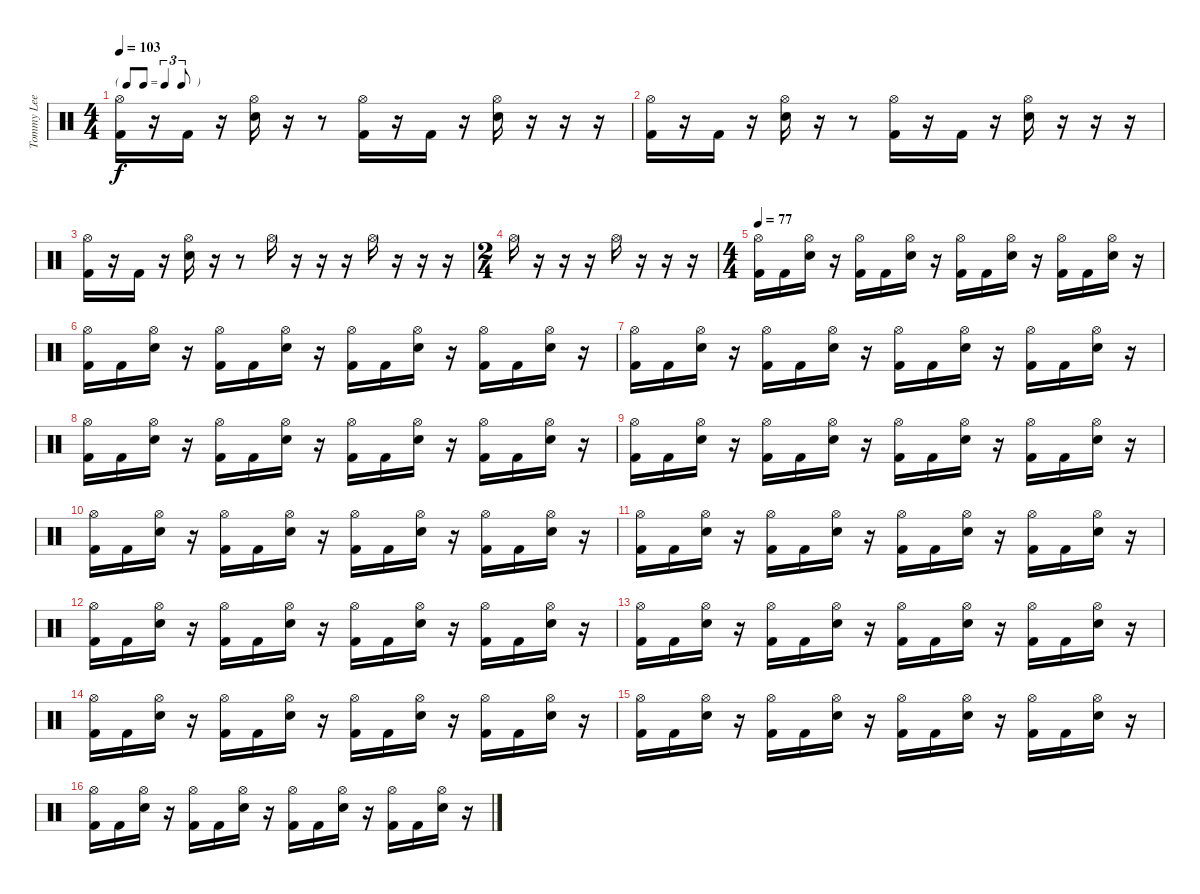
\track ("Tommy Lee" "Tommy Lee") {instrument percussion}
\staff {score}
\articulation defaults
\ts (4 4)
\tf triplet8th
\tempo 103
\clef neutral
\ks c
("Hi-Hat (open)" "Kick (hit) 2").16{dy f} r.16 "Kick (hit) 2".16 r.16 ("Hi-Hat (open)" "Snare (hit) 2").16 r.16 r.8 ("Hi-Hat (open)" "Kick (hit) 2").16 r.16 "Kick (hit) 2".16 r.16 ("Hi-Hat (open)" "Snare (hit) 2").16 r.16 r.16 r.16 |
("Hi-Hat (open)" "Kick (hit) 2").16 r.16 "Kick (hit) 2".16 r.16 ("Hi-Hat (open)" "Snare (hit) 2").16 r.16 r.8 ("Hi-Hat (open)" "Kick (hit) 2").16 r.16 "Kick (hit) 2".16 r.16 ("Hi-Hat (open)" "Snare (hit) 2").16 r.16 r.16 r.16 |
("Hi-Hat (open)" "Kick (hit) 2").16 r.16 "Kick (hit) 2".16 r.16 ("Hi-Hat (open)" "Snare (hit) 2").16 r.16 r.8 "Hi-Hat (open)".16 r.16 r.16 r.16 "Hi-Hat (open)".16 r.16 r.16 r.16 |
\ts (2 4)
"Hi-Hat (open)".16 r.16 r.16 r.16 "Hi-Hat (open)".16 r.16 r.16 r.16 |
\ts (4 4)
\tempo 74
\tempo 77
("Hi-Hat (open)" "Kick (hit) 2").16 "Kick (hit) 2".16 ("Hi-Hat (open)" "Electric Snare (hit)").16 r.16 ("Hi-Hat (open)" "Kick (hit) 2").16 "Kick (hit) 2".16 ("Hi-Hat (open)" "Electric Snare (hit)").16 r.16 ("Hi-Hat (open)" "Kick (hit) 2").16 "Kick (hit) 2".16 ("Hi-Hat (open)" "Electric Snare (hit)").16 r.16 ("Hi-Hat (open)" "Kick (hit) 2").16 "Kick (hit) 2".16 ("Hi-Hat (open)" "Electric Snare (hit)").16 r.16 |
("Hi-Hat (open)" "Kick (hit) 2").16 "Kick (hit) 2".16 ("Hi-Hat (open)" "Electric Snare (hit)").16 r.16 ("Hi-Hat (open)" "Kick (hit) 2").16 "Kick (hit) 2".16 ("Hi-Hat (open)" "Electric Snare (hit)").16 r.16 ("Hi-Hat (open)" "Kick (hit) 2").16 "Kick (hit) 2".16 ("Hi-Hat (open)" "Electric Snare (hit)").16 r.16 ("Hi-Hat (open)" "Kick (hit) 2").16 "Kick (hit) 2".16 ("Hi-Hat (open)" "Electric Snare (hit)").16 r.16 |
("Hi-Hat (open)" "Kick (hit) 2").16 "Kick (hit) 2".16 ("Hi-Hat (open)" "Electric Snare (hit)").16 r.16 ("Hi-Hat (open)" "Kick (hit) 2").16 "Kick (hit) 2".16 ("Hi-Hat (open)" "Electric Snare (hit)").16 r.16 ("Hi-Hat (open)" "Kick (hit) 2").16 "Kick (hit) 2".16 ("Hi-Hat (open)" "Electric Snare (hit)").16 r.16 ("Hi-Hat (open)" "Kick (hit) 2").16 "Kick (hit) 2".16 ("Hi-Hat (open)" "Electric Snare (hit)").16 r.16 |
("Hi-Hat (open)" "Kick (hit) 2").16 "Kick (hit) 2".16 ("Hi-Hat (open)" "Electric Snare (hit)").16 r.16 ("Hi-Hat (open)" "Kick (hit) 2").16 "Kick (hit) 2".16 ("Hi-Hat (open)" "Electric Snare (hit)").16 r.16 ("Hi-Hat (open)" "Kick (hit) 2").16 "Kick (hit) 2".16 ("Hi-Hat (open)" "Electric Snare (hit)").16 r.16 ("Hi-Hat (open)" "Kick (hit) 2").16 "Kick (hit) 2".16 ("Hi-Hat (open)" "Electric Snare (hit)").16 r.16 |
("Hi-Hat (open)" "Kick (hit) 2").16 "Kick (hit) 2".16 ("Hi-Hat (open)" "Electric Snare (hit)").16 r.16 ("Hi-Hat (open)" "Kick (hit) 2").16 "Kick (hit) 2".16 ("Hi-Hat (open)" "Electric Snare (hit)").16 r.16 ("Hi-Hat (open)" "Kick (hit) 2").16 "Kick (hit) 2".16 ("Hi-Hat (open)" "Electric Snare (hit)").16 r.16 ("Hi-Hat (open)" "Kick (hit) 2").16 "Kick (hit) 2".16 ("Hi-Hat (open)" "Electric Snare (hit)").16 r.16 |
("Hi-Hat (open)" "Kick (hit) 2").16 "Kick (hit) 2".16 ("Hi-Hat (open)" "Electric Snare (hit)").16 r.16 ("Hi-Hat (open)" "Kick (hit) 2").16 "Kick (hit) 2".16 ("Hi-Hat (open)" "Electric Snare (hit)").16 r.16 ("Hi-Hat (open)" "Kick (hit) 2").16 "Kick (hit) 2".16 ("Hi-Hat (open)" "Electric Snare (hit)").16 r.16 ("Hi-Hat (open)" "Kick (hit) 2").16 "Kick (hit) 2".16 ("Hi-Hat (open)" "Electric Snare (hit)").16 r.16 |
("Hi-Hat (open)" "Kick (hit) 2").16 "Kick (hit) 2".16 ("Hi-Hat (open)" "Electric Snare (hit)").16 r.16 ("Hi-Hat (open)" "Kick (hit) 2").16 "Kick (hit) 2".16 ("Hi-Hat (open)" "Electric Snare (hit)").16 r.16 ("Hi-Hat (open)" "Kick (hit) 2").16 "Kick (hit) 2".16 ("Hi-Hat (open)" "Electric Snare (hit)").16 r.16 ("Hi-Hat (open)" "Kick (hit) 2").16 "Kick (hit) 2".16 ("Hi-Hat (open)" "Electric Snare (hit)").16 r.16 |
("Hi-Hat (open)" "Kick (hit) 2").16 "Kick (hit) 2".16 ("Hi-Hat (open)" "Electric Snare (hit)").16 r.16 ("Hi-Hat (open)" "Kick (hit) 2").16 "Kick (hit) 2".16 ("Hi-Hat (open)" "Electric Snare (hit)").16 r.16 ("Hi-Hat (open)" "Kick (hit) 2").16 "Kick (hit) 2".16 ("Hi-Hat (open)" "Electric Snare (hit)").16 r.16 ("Hi-Hat (open)" "Kick (hit) 2").16 "Kick (hit) 2".16 ("Hi-Hat (open)" "Electric Snare (hit)").16 r.16 |
("Hi-Hat (open)" "Kick (hit) 2").16 "Kick (hit) 2".16 ("Hi-Hat (open)" "Electric Snare (hit)").16 r.16 ("Hi-Hat (open)" "Kick (hit) 2").16 "Kick (hit) 2".16 ("Hi-Hat (open)" "Electric Snare (hit)").16 r.16 ("Hi-Hat (open)" "Kick (hit) 2").16 "Kick (hit) 2".16 ("Hi-Hat (open)" "Electric Snare (hit)").16 r.16 ("Hi-Hat (open)" "Kick (hit) 2").16 "Kick (hit) 2".16 ("Hi-Hat (open)" "Electric Snare (hit)").16 r.16 |
("Hi-Hat (open)" "Kick (hit) 2").16 "Kick (hit) 2".16 ("Hi-Hat (open)" "Electric Snare (hit)").16 r.16 ("Hi-Hat (open)" "Kick (hit) 2").16 "Kick (hit) 2".16 ("Hi-Hat (open)" "Electric Snare (hit)").16 r.16 ("Hi-Hat (open)" "Kick (hit) 2").16 "Kick (hit) 2".16 ("Hi-Hat (open)" "Electric Snare (hit)").16 r.16 ("Hi-Hat (open)" "Kick (hit) 2").16 "Kick (hit) 2".16 ("Hi-Hat (open)" "Electric Snare (hit)").16 r.16 |
("Hi-Hat (open)" "Kick (hit) 2").16 "Kick (hit) 2".16 ("Hi-Hat (open)" "Electric Snare (hit)").16 r.16 ("Hi-Hat (open)" "Kick (hit) 2").16 "Kick (hit) 2".16 ("Hi-Hat (open)" "Electric Snare (hit)").16 r.16 ("Hi-Hat (open)" "Kick (hit) 2").16 "Kick (hit) 2".16 ("Hi-Hat (open)" "Electric Snare (hit)").16 r.16 ("Hi-Hat (open)" "Kick (hit) 2").16 "Kick (hit) 2".16 ("Hi-Hat (open)" "Electric Snare (hit)").16 r.16 |
("Hi-Hat (open)" "Kick (hit) 2").16 "Kick (hit) 2".16 ("Hi-Hat (open)" "Electric Snare (hit)").16 r.16 ("Hi-Hat (open)" "Kick (hit) 2").16 "Kick (hit) 2".16 ("Hi-Hat (open)" "Electric Snare (hit)").16 r.16 ("Hi-Hat (open)" "Kick (hit) 2").16 "Kick (hit) 2".16 ("Hi-Hat (open)" "Electric Snare (hit)").16 r.16 ("Hi-Hat (open)" "Kick (hit) 2").16 "Kick (hit) 2".16 ("Hi-Hat (open)" "Electric Snare (hit)").16 r.16
